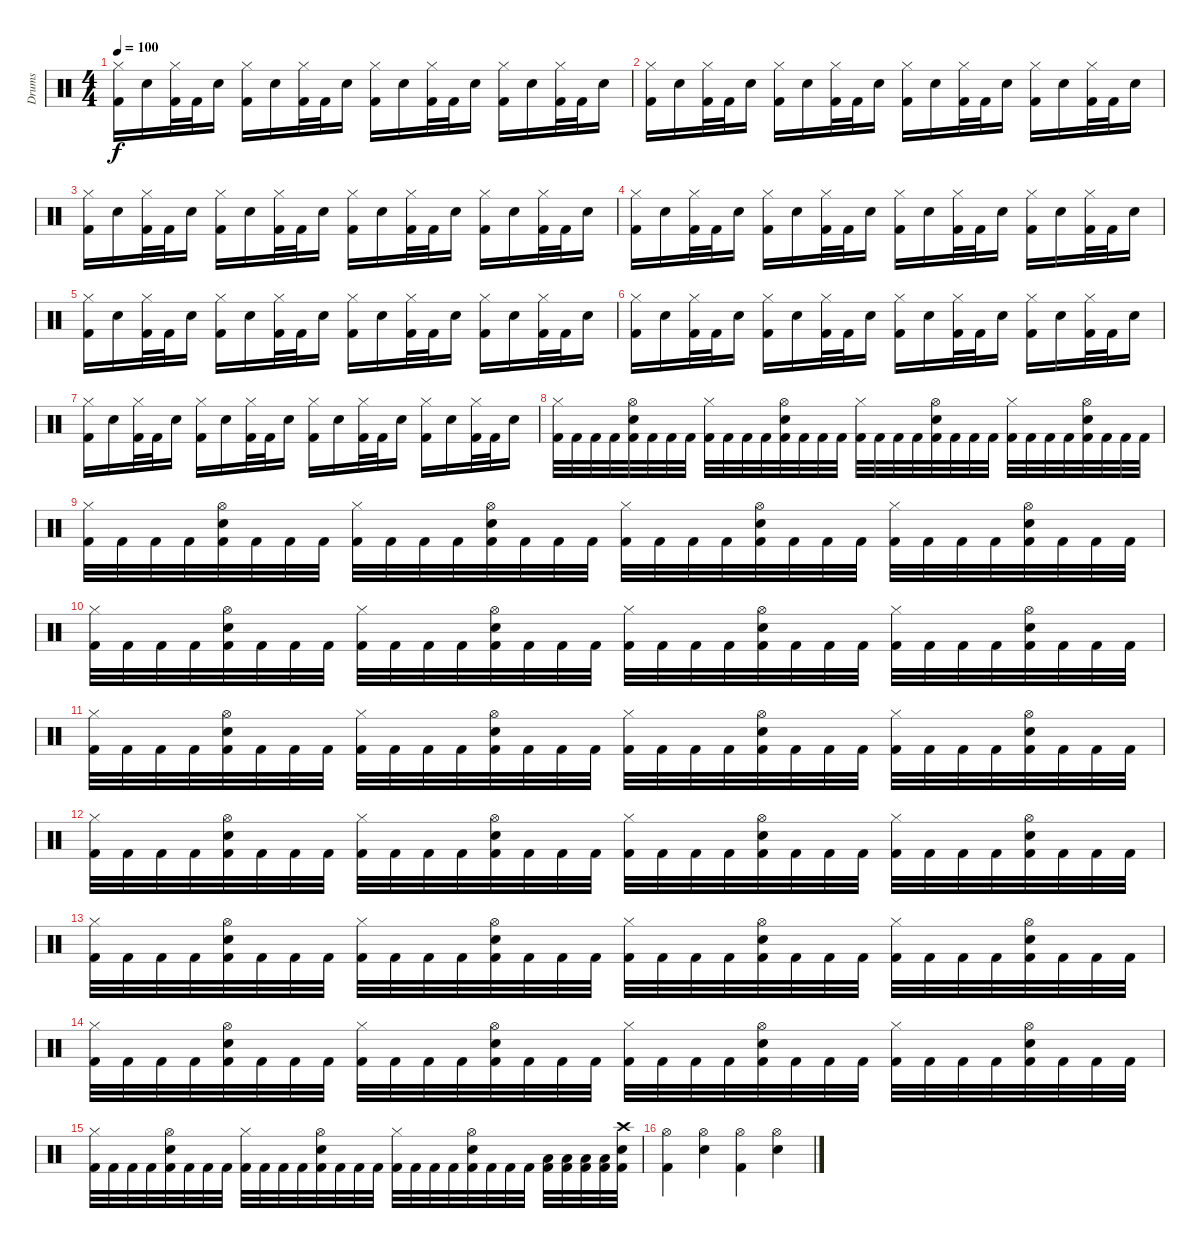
\track ("Drums" "Drums") {instrument percussion}
\staff {score}
\articulation defaults
\ts (4 4)
\tempo 100
\clef neutral
\ks c
("Hi-Hat (closed)" "Kick (hit) 2").16{dy f} "Snare (hit) 2".16 ("Hi-Hat (closed)" "Kick (hit) 2").32 "Kick (hit) 2".32 "Snare (hit) 2".16 ("Hi-Hat (closed)" "Kick (hit) 2").16 "Snare (hit) 2".16 ("Hi-Hat (closed)" "Kick (hit) 2").32 "Kick (hit) 2".32 "Snare (hit) 2".16 ("Hi-Hat (closed)" "Kick (hit) 2").16 "Snare (hit) 2".16 ("Hi-Hat (closed)" "Kick (hit) 2").32 "Kick (hit) 2".32 "Snare (hit) 2".16 ("Hi-Hat (closed)" "Kick (hit) 2").16 "Snare (hit) 2".16 ("Hi-Hat (closed)" "Kick (hit) 2").32 "Kick (hit) 2".32 "Snare (hit) 2".16 |
("Hi-Hat (closed)" "Kick (hit) 2").16 "Snare (hit) 2".16 ("Hi-Hat (closed)" "Kick (hit) 2").32 "Kick (hit) 2".32 "Snare (hit) 2".16 ("Hi-Hat (closed)" "Kick (hit) 2").16 "Snare (hit) 2".16 ("Hi-Hat (closed)" "Kick (hit) 2").32 "Kick (hit) 2".32 "Snare (hit) 2".16 ("Hi-Hat (closed)" "Kick (hit) 2").16 "Snare (hit) 2".16 ("Hi-Hat (closed)" "Kick (hit) 2").32 "Kick (hit) 2".32 "Snare (hit) 2".16 ("Hi-Hat (closed)" "Kick (hit) 2").16 "Snare (hit) 2".16 ("Hi-Hat (closed)" "Kick (hit) 2").32 "Kick (hit) 2".32 "Snare (hit) 2".16 |
("Hi-Hat (closed)" "Kick (hit) 2").16 "Snare (hit) 2".16 ("Hi-Hat (closed)" "Kick (hit) 2").32 "Kick (hit) 2".32 "Snare (hit) 2".16 ("Hi-Hat (closed)" "Kick (hit) 2").16 "Snare (hit) 2".16 ("Hi-Hat (closed)" "Kick (hit) 2").32 "Kick (hit) 2".32 "Snare (hit) 2".16 ("Hi-Hat (closed)" "Kick (hit) 2").16 "Snare (hit) 2".16 ("Hi-Hat (closed)" "Kick (hit) 2").32 "Kick (hit) 2".32 "Snare (hit) 2".16 ("Hi-Hat (closed)" "Kick (hit) 2").16 "Snare (hit) 2".16 ("Hi-Hat (closed)" "Kick (hit) 2").32 "Kick (hit) 2".32 "Snare (hit) 2".16 |
("Hi-Hat (closed)" "Kick (hit) 2").16 "Snare (hit) 2".16 ("Hi-Hat (closed)" "Kick (hit) 2").32 "Kick (hit) 2".32 "Snare (hit) 2".16 ("Hi-Hat (closed)" "Kick (hit) 2").16 "Snare (hit) 2".16 ("Hi-Hat (closed)" "Kick (hit) 2").32 "Kick (hit) 2".32 "Snare (hit) 2".16 ("Hi-Hat (closed)" "Kick (hit) 2").16 "Snare (hit) 2".16 ("Hi-Hat (closed)" "Kick (hit) 2").32 "Kick (hit) 2".32 "Snare (hit) 2".16 ("Hi-Hat (closed)" "Kick (hit) 2").16 "Snare (hit) 2".16 ("Hi-Hat (closed)" "Kick (hit) 2").32 "Kick (hit) 2".32 "Snare (hit) 2".16 |
("Hi-Hat (closed)" "Kick (hit) 2").16 "Snare (hit) 2".16 ("Hi-Hat (closed)" "Kick (hit) 2").32 "Kick (hit) 2".32 "Snare (hit) 2".16 ("Hi-Hat (closed)" "Kick (hit) 2").16 "Snare (hit) 2".16 ("Hi-Hat (closed)" "Kick (hit) 2").32 "Kick (hit) 2".32 "Snare (hit) 2".16 ("Hi-Hat (closed)" "Kick (hit) 2").16 "Snare (hit) 2".16 ("Hi-Hat (closed)" "Kick (hit) 2").32 "Kick (hit) 2".32 "Snare (hit) 2".16 ("Hi-Hat (closed)" "Kick (hit) 2").16 "Snare (hit) 2".16 ("Hi-Hat (closed)" "Kick (hit) 2").32 "Kick (hit) 2".32 "Snare (hit) 2".16 |
("Hi-Hat (closed)" "Kick (hit) 2").16 "Snare (hit) 2".16 ("Hi-Hat (closed)" "Kick (hit) 2").32 "Kick (hit) 2".32 "Snare (hit) 2".16 ("Hi-Hat (closed)" "Kick (hit) 2").16 "Snare (hit) 2".16 ("Hi-Hat (closed)" "Kick (hit) 2").32 "Kick (hit) 2".32 "Snare (hit) 2".16 ("Hi-Hat (closed)" "Kick (hit) 2").16 "Snare (hit) 2".16 ("Hi-Hat (closed)" "Kick (hit) 2").32 "Kick (hit) 2".32 "Snare (hit) 2".16 ("Hi-Hat (closed)" "Kick (hit) 2").16 "Snare (hit) 2".16 ("Hi-Hat (closed)" "Kick (hit) 2").32 "Kick (hit) 2".32 "Snare (hit) 2".16 |
("Hi-Hat (closed)" "Kick (hit) 2").16 "Snare (hit) 2".16 ("Hi-Hat (closed)" "Kick (hit) 2").32 "Kick (hit) 2".32 "Snare (hit) 2".16 ("Hi-Hat (closed)" "Kick (hit) 2").16 "Snare (hit) 2".16 ("Hi-Hat (closed)" "Kick (hit) 2").32 "Kick (hit) 2".32 "Snare (hit) 2".16 ("Hi-Hat (closed)" "Kick (hit) 2").16 "Snare (hit) 2".16 ("Hi-Hat (closed)" "Kick (hit) 2").32 "Kick (hit) 2".32 "Snare (hit) 2".16 ("Hi-Hat (closed)" "Kick (hit) 2").16 "Snare (hit) 2".16 ("Hi-Hat (closed)" "Kick (hit) 2").32 "Kick (hit) 2".32 "Snare (hit) 2".16 |
("Hi-Hat (closed)" "Kick (hit) 2").32 "Kick (hit) 2".32 "Kick (hit) 2".32 "Kick (hit) 2".32 ("Hi-Hat (open)" "Snare (hit) 2" "Kick (hit) 2").32 "Kick (hit) 2".32 "Kick (hit) 2".32 "Kick (hit) 2".32 ("Hi-Hat (closed)" "Kick (hit) 2").32 "Kick (hit) 2".32 "Kick (hit) 2".32 "Kick (hit) 2".32 ("Hi-Hat (open)" "Snare (hit) 2" "Kick (hit) 2").32 "Kick (hit) 2".32 "Kick (hit) 2".32 "Kick (hit) 2".32 ("Hi-Hat (closed)" "Kick (hit) 2").32 "Kick (hit) 2".32 "Kick (hit) 2".32 "Kick (hit) 2".32 ("Hi-Hat (open)" "Snare (hit) 2" "Kick (hit) 2").32 "Kick (hit) 2".32 "Kick (hit) 2".32 "Kick (hit) 2".32 ("Hi-Hat (closed)" "Kick (hit) 2").32 "Kick (hit) 2".32 "Kick (hit) 2".32 "Kick (hit) 2".32 ("Hi-Hat (open)" "Snare (hit) 2" "Kick (hit) 2").32 "Kick (hit) 2".32 "Kick (hit) 2".32 "Kick (hit) 2".32 |
("Hi-Hat (closed)" "Kick (hit) 2").32 "Kick (hit) 2".32 "Kick (hit) 2".32 "Kick (hit) 2".32 ("Hi-Hat (open)" "Snare (hit) 2" "Kick (hit) 2").32 "Kick (hit) 2".32 "Kick (hit) 2".32 "Kick (hit) 2".32 ("Hi-Hat (closed)" "Kick (hit) 2").32 "Kick (hit) 2".32 "Kick (hit) 2".32 "Kick (hit) 2".32 ("Hi-Hat (open)" "Snare (hit) 2" "Kick (hit) 2").32 "Kick (hit) 2".32 "Kick (hit) 2".32 "Kick (hit) 2".32 ("Hi-Hat (closed)" "Kick (hit) 2").32 "Kick (hit) 2".32 "Kick (hit) 2".32 "Kick (hit) 2".32 ("Hi-Hat (open)" "Snare (hit) 2" "Kick (hit) 2").32 "Kick (hit) 2".32 "Kick (hit) 2".32 "Kick (hit) 2".32 ("Hi-Hat (closed)" "Kick (hit) 2").32 "Kick (hit) 2".32 "Kick (hit) 2".32 "Kick (hit) 2".32 ("Hi-Hat (open)" "Snare (hit) 2" "Kick (hit) 2").32 "Kick (hit) 2".32 "Kick (hit) 2".32 "Kick (hit) 2".32 |
("Hi-Hat (closed)" "Kick (hit) 2").32 "Kick (hit) 2".32 "Kick (hit) 2".32 "Kick (hit) 2".32 ("Hi-Hat (open)" "Snare (hit) 2" "Kick (hit) 2").32 "Kick (hit) 2".32 "Kick (hit) 2".32 "Kick (hit) 2".32 ("Hi-Hat (closed)" "Kick (hit) 2").32 "Kick (hit) 2".32 "Kick (hit) 2".32 "Kick (hit) 2".32 ("Hi-Hat (open)" "Snare (hit) 2" "Kick (hit) 2").32 "Kick (hit) 2".32 "Kick (hit) 2".32 "Kick (hit) 2".32 ("Hi-Hat (closed)" "Kick (hit) 2").32 "Kick (hit) 2".32 "Kick (hit) 2".32 "Kick (hit) 2".32 ("Hi-Hat (open)" "Snare (hit) 2" "Kick (hit) 2").32 "Kick (hit) 2".32 "Kick (hit) 2".32 "Kick (hit) 2".32 ("Hi-Hat (closed)" "Kick (hit) 2").32 "Kick (hit) 2".32 "Kick (hit) 2".32 "Kick (hit) 2".32 ("Hi-Hat (open)" "Snare (hit) 2" "Kick (hit) 2").32 "Kick (hit) 2".32 "Kick (hit) 2".32 "Kick (hit) 2".32 |
("Hi-Hat (closed)" "Kick (hit) 2").32 "Kick (hit) 2".32 "Kick (hit) 2".32 "Kick (hit) 2".32 ("Hi-Hat (open)" "Snare (hit) 2" "Kick (hit) 2").32 "Kick (hit) 2".32 "Kick (hit) 2".32 "Kick (hit) 2".32 ("Hi-Hat (closed)" "Kick (hit) 2").32 "Kick (hit) 2".32 "Kick (hit) 2".32 "Kick (hit) 2".32 ("Hi-Hat (open)" "Snare (hit) 2" "Kick (hit) 2").32 "Kick (hit) 2".32 "Kick (hit) 2".32 "Kick (hit) 2".32 ("Hi-Hat (closed)" "Kick (hit) 2").32 "Kick (hit) 2".32 "Kick (hit) 2".32 "Kick (hit) 2".32 ("Hi-Hat (open)" "Snare (hit) 2" "Kick (hit) 2").32 "Kick (hit) 2".32 "Kick (hit) 2".32 "Kick (hit) 2".32 ("Hi-Hat (closed)" "Kick (hit) 2").32 "Kick (hit) 2".32 "Kick (hit) 2".32 "Kick (hit) 2".32 ("Hi-Hat (open)" "Snare (hit) 2" "Kick (hit) 2").32 "Kick (hit) 2".32 "Kick (hit) 2".32 "Kick (hit) 2".32 |
("Hi-Hat (closed)" "Kick (hit) 2").32 "Kick (hit) 2".32 "Kick (hit) 2".32 "Kick (hit) 2".32 ("Hi-Hat (open)" "Snare (hit) 2" "Kick (hit) 2").32 "Kick (hit) 2".32 "Kick (hit) 2".32 "Kick (hit) 2".32 ("Hi-Hat (closed)" "Kick (hit) 2").32 "Kick (hit) 2".32 "Kick (hit) 2".32 "Kick (hit) 2".32 ("Hi-Hat (open)" "Snare (hit) 2" "Kick (hit) 2").32 "Kick (hit) 2".32 "Kick (hit) 2".32 "Kick (hit) 2".32 ("Hi-Hat (closed)" "Kick (hit) 2").32 "Kick (hit) 2".32 "Kick (hit) 2".32 "Kick (hit) 2".32 ("Hi-Hat (open)" "Snare (hit) 2" "Kick (hit) 2").32 "Kick (hit) 2".32 "Kick (hit) 2".32 "Kick (hit) 2".32 ("Hi-Hat (closed)" "Kick (hit) 2").32 "Kick (hit) 2".32 "Kick (hit) 2".32 "Kick (hit) 2".32 ("Hi-Hat (open)" "Snare (hit) 2" "Kick (hit) 2").32 "Kick (hit) 2".32 "Kick (hit) 2".32 "Kick (hit) 2".32 |
("Hi-Hat (closed)" "Kick (hit) 2").32 "Kick (hit) 2".32 "Kick (hit) 2".32 "Kick (hit) 2".32 ("Hi-Hat (open)" "Snare (hit) 2" "Kick (hit) 2").32 "Kick (hit) 2".32 "Kick (hit) 2".32 "Kick (hit) 2".32 ("Hi-Hat (closed)" "Kick (hit) 2").32 "Kick (hit) 2".32 "Kick (hit) 2".32 "Kick (hit) 2".32 ("Hi-Hat (open)" "Snare (hit) 2" "Kick (hit) 2").32 "Kick (hit) 2".32 "Kick (hit) 2".32 "Kick (hit) 2".32 ("Hi-Hat (closed)" "Kick (hit) 2").32 "Kick (hit) 2".32 "Kick (hit) 2".32 "Kick (hit) 2".32 ("Hi-Hat (open)" "Snare (hit) 2" "Kick (hit) 2").32 "Kick (hit) 2".32 "Kick (hit) 2".32 "Kick (hit) 2".32 ("Hi-Hat (closed)" "Kick (hit) 2").32 "Kick (hit) 2".32 "Kick (hit) 2".32 "Kick (hit) 2".32 ("Hi-Hat (open)" "Snare (hit) 2" "Kick (hit) 2").32 "Kick (hit) 2".32 "Kick (hit) 2".32 "Kick (hit) 2".32 |
("Hi-Hat (closed)" "Kick (hit) 2").32 "Kick (hit) 2".32 "Kick (hit) 2".32 "Kick (hit) 2".32 ("Hi-Hat (open)" "Snare (hit) 2" "Kick (hit) 2").32 "Kick (hit) 2".32 "Kick (hit) 2".32 "Kick (hit) 2".32 ("Hi-Hat (closed)" "Kick (hit) 2").32 "Kick (hit) 2".32 "Kick (hit) 2".32 "Kick (hit) 2".32 ("Hi-Hat (open)" "Snare (hit) 2" "Kick (hit) 2").32 "Kick (hit) 2".32 "Kick (hit) 2".32 "Kick (hit) 2".32 ("Hi-Hat (closed)" "Kick (hit) 2").32 "Kick (hit) 2".32 "Kick (hit) 2".32 "Kick (hit) 2".32 ("Hi-Hat (open)" "Snare (hit) 2" "Kick (hit) 2").32 "Kick (hit) 2".32 "Kick (hit) 2".32 "Kick (hit) 2".32 ("Hi-Hat (closed)" "Kick (hit) 2").32 "Kick (hit) 2".32 "Kick (hit) 2".32 "Kick (hit) 2".32 ("Hi-Hat (open)" "Snare (hit) 2" "Kick (hit) 2").32 "Kick (hit) 2".32 "Kick (hit) 2".32 "Kick (hit) 2".32 |
("Hi-Hat (closed)" "Kick (hit) 2").32 "Kick (hit) 2".32 "Kick (hit) 2".32 "Kick (hit) 2".32 ("Hi-Hat (open)" "Snare (hit) 2" "Kick (hit) 2").32 "Kick (hit) 2".32 "Kick (hit) 2".32 "Kick (hit) 2".32 ("Hi-Hat (closed)" "Kick (hit) 2").32 "Kick (hit) 2".32 "Kick (hit) 2".32 "Kick (hit) 2".32 ("Hi-Hat (open)" "Snare (hit) 2" "Kick (hit) 2").32 "Kick (hit) 2".32 "Kick (hit) 2".32 "Kick (hit) 2".32 ("Hi-Hat (closed)" "Kick (hit) 2").32 "Kick (hit) 2".32 "Kick (hit) 2".32 "Kick (hit) 2".32 ("Hi-Hat (open)" "Snare (hit) 2" "Kick (hit) 2").32 "Kick (hit) 2".32 "Kick (hit) 2".32 "Kick (hit) 2".32 ("Low Floor Tom (hit)" "Kick (hit) 2").32 ("Low Floor Tom (hit)" "Kick (hit) 2").32 ("Low Floor Tom (hit)" "Kick (hit) 2").32 ("Low Floor Tom (hit)" "Kick (hit) 2").32 ("Crash high (hit)" "Snare (hit) 2" "Kick (hit) 2").32 |
("Hi-Hat (open)" "Kick (hit) 2").4 ("Hi-Hat (open)" "Snare (hit) 2").4 ("Hi-Hat (open)" "Kick (hit) 2").4 ("Hi-Hat (open)" "Snare (hit) 2").4
